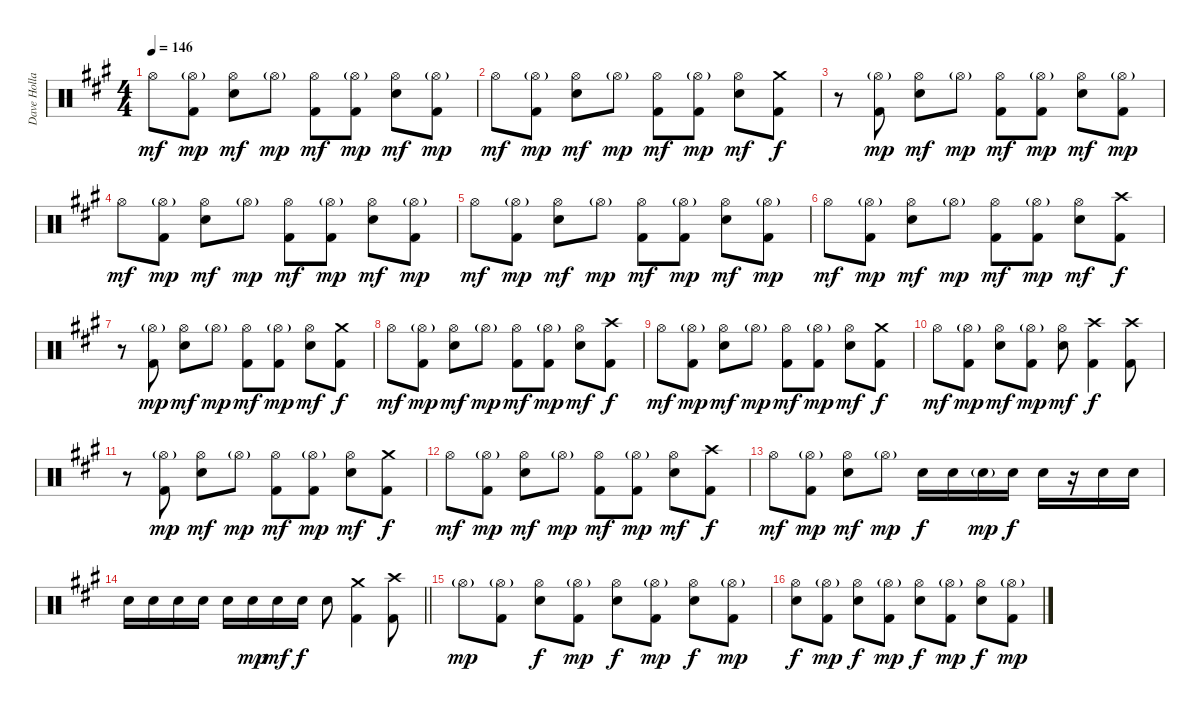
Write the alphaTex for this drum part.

\track ("Dave Holland" "Dave Holla") {instrument percussion}
\staff {score}
\articulation defaults
\ts (4 4)
\tempo 146
\clef neutral
\ks a "Hi-Hat (open)".8{dy mf}
("Hi-Hat (open)"{g} "Kick (hit) 2").8{dy mp} ("Hi-Hat (open)" "Electric Snare (hit)").8{dy mf} "Hi-Hat (open)"{g}.8{dy mp} ("Hi-Hat (open)" "Kick (hit) 2").8{dy mf} ("Hi-Hat (open)"{g} "Kick (hit) 2").8{dy mp} ("Hi-Hat (open)" "Electric Snare (hit)").8{dy mf} ("Hi-Hat (open)"{g} "Kick (hit) 2").8{dy mp} |
"Hi-Hat (open)".8{dy mf} ("Hi-Hat (open)"{g} "Kick (hit) 2").8{dy mp} ("Hi-Hat (open)" "Electric Snare (hit)").8{dy mf} "Hi-Hat (open)"{g}.8{dy mp} ("Hi-Hat (open)" "Kick (hit) 2").8{dy mf} ("Hi-Hat (open)"{g} "Kick (hit) 2").8{dy mp} ("Hi-Hat (open)" "Electric Snare (hit)").8{dy mf} ("Crash medium (hit)" "Kick (hit) 2").8{dy f} |
r.8 ("Hi-Hat (open)"{g} "Kick (hit) 2").8{dy mp} ("Hi-Hat (open)" "Electric Snare (hit)").8{dy mf} "Hi-Hat (open)"{g}.8{dy mp} ("Hi-Hat (open)" "Kick (hit) 2").8{dy mf} ("Hi-Hat (open)"{g} "Kick (hit) 2").8{dy mp} ("Hi-Hat (open)" "Electric Snare (hit)").8{dy mf} ("Hi-Hat (open)"{g} "Kick (hit) 2").8{dy mp} |
"Hi-Hat (open)".8{dy mf} ("Hi-Hat (open)"{g} "Kick (hit) 2").8{dy mp} ("Hi-Hat (open)" "Electric Snare (hit)").8{dy mf} "Hi-Hat (open)"{g}.8{dy mp} ("Hi-Hat (open)" "Kick (hit) 2").8{dy mf} ("Hi-Hat (open)"{g} "Kick (hit) 2").8{dy mp} ("Hi-Hat (open)" "Electric Snare (hit)").8{dy mf} ("Hi-Hat (open)"{g} "Kick (hit) 2").8{dy mp} |
"Hi-Hat (open)".8{dy mf} ("Hi-Hat (open)"{g} "Kick (hit) 2").8{dy mp} ("Hi-Hat (open)" "Electric Snare (hit)").8{dy mf} "Hi-Hat (open)"{g}.8{dy mp} ("Hi-Hat (open)" "Kick (hit) 2").8{dy mf} ("Hi-Hat (open)"{g} "Kick (hit) 2").8{dy mp} ("Hi-Hat (open)" "Electric Snare (hit)").8{dy mf} ("Hi-Hat (open)"{g} "Kick (hit) 2").8{dy mp} |
"Hi-Hat (open)".8{dy mf} ("Hi-Hat (open)"{g} "Kick (hit) 2").8{dy mp} ("Hi-Hat (open)" "Electric Snare (hit)").8{dy mf} "Hi-Hat (open)"{g}.8{dy mp} ("Hi-Hat (open)" "Kick (hit) 2").8{dy mf} ("Hi-Hat (open)"{g} "Kick (hit) 2").8{dy mp} ("Hi-Hat (open)" "Electric Snare (hit)").8{dy mf} ("Crash high (hit)" "Kick (hit) 2").8{dy f} |
r.8 ("Hi-Hat (open)"{g} "Kick (hit) 2").8{dy mp} ("Hi-Hat (open)" "Electric Snare (hit)").8{dy mf} "Hi-Hat (open)"{g}.8{dy mp} ("Hi-Hat (open)" "Kick (hit) 2").8{dy mf} ("Hi-Hat (open)"{g} "Kick (hit) 2").8{dy mp} ("Hi-Hat (open)" "Electric Snare (hit)").8{dy mf} ("Crash medium (hit)" "Kick (hit) 2").8{dy f} |
"Hi-Hat (open)".8{dy mf} ("Hi-Hat (open)"{g} "Kick (hit) 2").8{dy mp} ("Hi-Hat (open)" "Electric Snare (hit)").8{dy mf} "Hi-Hat (open)"{g}.8{dy mp} ("Hi-Hat (open)" "Kick (hit) 2").8{dy mf} ("Hi-Hat (open)"{g} "Kick (hit) 2").8{dy mp} ("Hi-Hat (open)" "Electric Snare (hit)").8{dy mf} ("Crash high (hit)" "Kick (hit) 2").8{dy f} |
"Hi-Hat (open)".8{dy mf} ("Hi-Hat (open)"{g} "Kick (hit) 2").8{dy mp} ("Hi-Hat (open)" "Electric Snare (hit)").8{dy mf} "Hi-Hat (open)"{g}.8{dy mp} ("Hi-Hat (open)" "Kick (hit) 2").8{dy mf} ("Hi-Hat (open)"{g} "Kick (hit) 2").8{dy mp} ("Hi-Hat (open)" "Electric Snare (hit)").8{dy mf} ("Crash medium (hit)" "Kick (hit) 2").8{dy f} |
"Hi-Hat (open)".8{dy mf} ("Hi-Hat (open)"{g} "Kick (hit) 2").8{dy mp} ("Hi-Hat (open)" "Electric Snare (hit)").8{dy mf} ("Hi-Hat (open)"{g} "Kick (hit) 2").8{dy mp} ("Hi-Hat (open)" "Electric Snare (hit)").8{dy mf} ("Crash high (hit)" "Kick (hit) 2").4{dy f} ("Crash high (hit)" "Kick (hit) 2").8 |
r.8 ("Hi-Hat (open)"{g} "Kick (hit) 2").8{dy mp} ("Hi-Hat (open)" "Electric Snare (hit)").8{dy mf} "Hi-Hat (open)"{g}.8{dy mp} ("Hi-Hat (open)" "Kick (hit) 2").8{dy mf} ("Hi-Hat (open)"{g} "Kick (hit) 2").8{dy mp} ("Hi-Hat (open)" "Electric Snare (hit)").8{dy mf} ("Crash medium (hit)" "Kick (hit) 2").8{dy f} |
"Hi-Hat (open)".8{dy mf} ("Hi-Hat (open)"{g} "Kick (hit) 2").8{dy mp} ("Hi-Hat (open)" "Electric Snare (hit)").8{dy mf} "Hi-Hat (open)"{g}.8{dy mp} ("Hi-Hat (open)" "Kick (hit) 2").8{dy mf} ("Hi-Hat (open)"{g} "Kick (hit) 2").8{dy mp} ("Hi-Hat (open)" "Electric Snare (hit)").8{dy mf} ("Crash high (hit)" "Kick (hit) 2").8{dy f} |
"Hi-Hat (open)".8{dy mf} ("Hi-Hat (open)"{g} "Kick (hit) 2").8{dy mp} ("Hi-Hat (open)" "Electric Snare (hit)").8{dy mf} "Hi-Hat (open)"{g}.8{dy mp} "Electric Snare (hit)".16{dy f} "Electric Snare (hit)".16 "Electric Snare (hit)"{g}.16{dy mp} "Electric Snare (hit)".16{dy f} "Electric Snare (hit)".16 r.16 "Electric Snare (hit)".16 "Electric Snare (hit)".16 |
\barLineRight lightlight "Electric Snare (hit)".16 "Electric Snare (hit)".16 "Electric Snare (hit)".16 "Electric Snare (hit)".16 "Electric Snare (hit)".16 "Electric Snare (hit)".16{dy mp} "Electric Snare (hit)".16{dy mf} "Electric Snare (hit)".16{dy f} "Electric Snare (hit)".8
("Crash medium (hit)" "Kick (hit) 2").4 ("Crash high (hit)" "Kick (hit) 2").8 |
\section ("" "")
"Hi-Hat (open)"{g}.8{dy mp} ("Hi-Hat (open)"{g} "Kick (hit) 2").8 ("Hi-Hat (open)" "Electric Snare (hit)").8{dy f} ("Hi-Hat (open)"{g} "Kick (hit) 2").8{dy mp} ("Hi-Hat (open)" "Electric Snare (hit)").8{dy f} ("Hi-Hat (open)"{g} "Kick (hit) 2").8{dy mp} ("Hi-Hat (open)" "Electric Snare (hit)").8{dy f} ("Hi-Hat (open)"{g} "Kick (hit) 2").8{dy mp} |
("Hi-Hat (open)" "Electric Snare (hit)").8{dy f} ("Hi-Hat (open)"{g} "Kick (hit) 2").8{dy mp} ("Hi-Hat (open)" "Electric Snare (hit)").8{dy f} ("Hi-Hat (open)"{g} "Kick (hit) 2").8{dy mp} ("Hi-Hat (open)" "Electric Snare (hit)").8{dy f} ("Hi-Hat (open)"{g} "Kick (hit) 2").8{dy mp} ("Hi-Hat (open)" "Electric Snare (hit)").8{dy f} ("Hi-Hat (open)"{g} "Kick (hit) 2").8{dy mp}
